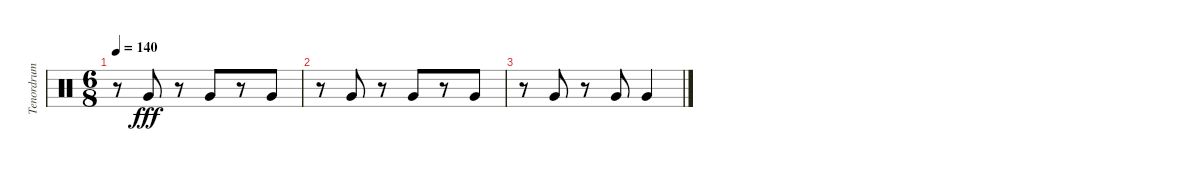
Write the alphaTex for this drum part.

\track ("Tenordrum" "Tenordrum") {instrument percussion}
\staff {score}
\articulation defaults
\ts (6 8)
\tempo 140
\clef neutral
\ks c
r.8{dy fff} "Very Low Tom (hit)".8 r.8 "Very Low Tom (hit)".8 r.8 "Very Low Tom (hit)".8 |
r.8 "Very Low Tom (hit)".8 r.8 "Very Low Tom (hit)".8 r.8 "Very Low Tom (hit)".8 |
r.8 "Very Low Tom (hit)".8 r.8 "Very Low Tom (hit)".8 "Very Low Tom (hit)".4
